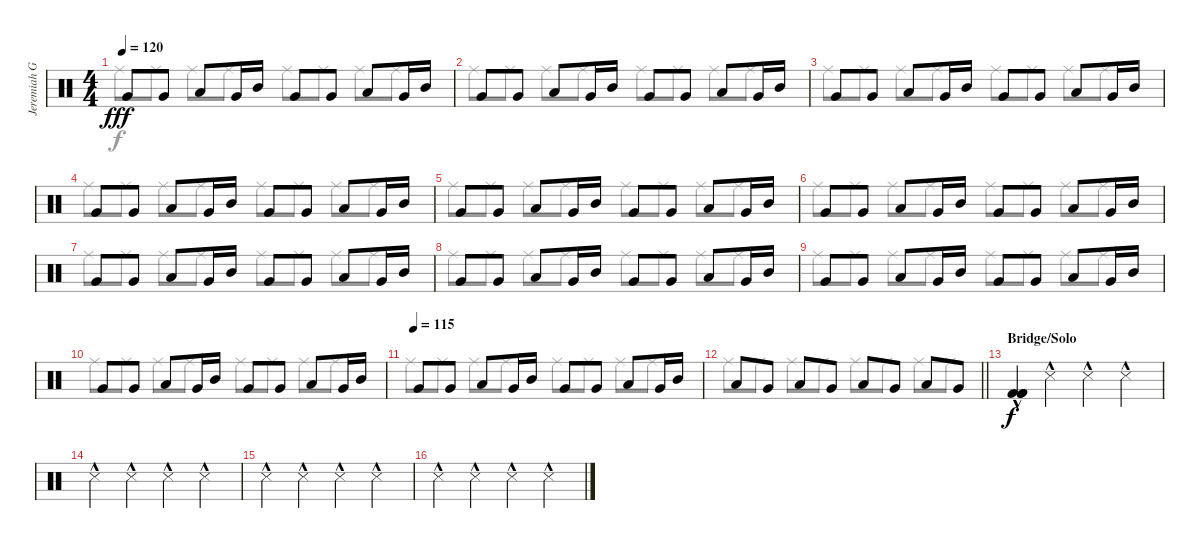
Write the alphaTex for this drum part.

\track ("Jeremiah Green" "Jeremiah G") {instrument percussion}
\staff {score}
\articulation defaults
\voice
\ts (4 4)
\tempo 120
\clef neutral
\ks c "Very Low Tom (hit)".8{dy fff} "Very Low Tom (hit)".8 "Low Tom (hit)".8 "Very Low Tom (hit)".16 "Mid Tom (hit)".16 "Very Low Tom (hit)".8 "Very Low Tom (hit)".8 "Low Tom (hit)".8 "Very Low Tom (hit)".16 "Mid Tom (hit)".16
|
"Very Low Tom (hit)".8 "Very Low Tom (hit)".8 "Low Tom (hit)".8 "Very Low Tom (hit)".16 "Mid Tom (hit)".16 "Very Low Tom (hit)".8 "Very Low Tom (hit)".8 "Low Tom (hit)".8 "Very Low Tom (hit)".16 "Mid Tom (hit)".16 |
"Very Low Tom (hit)".8 "Very Low Tom (hit)".8 "Low Tom (hit)".8 "Very Low Tom (hit)".16 "Mid Tom (hit)".16 "Very Low Tom (hit)".8 "Very Low Tom (hit)".8 "Low Tom (hit)".8 "Very Low Tom (hit)".16 "Mid Tom (hit)".16 |
"Very Low Tom (hit)".8 "Very Low Tom (hit)".8 "Low Tom (hit)".8 "Very Low Tom (hit)".16 "Mid Tom (hit)".16 "Very Low Tom (hit)".8 "Very Low Tom (hit)".8 "Low Tom (hit)".8 "Very Low Tom (hit)".16 "Mid Tom (hit)".16 |
"Very Low Tom (hit)".8 "Very Low Tom (hit)".8 "Low Tom (hit)".8 "Very Low Tom (hit)".16 "Mid Tom (hit)".16 "Very Low Tom (hit)".8 "Very Low Tom (hit)".8 "Low Tom (hit)".8 "Very Low Tom (hit)".16 "Mid Tom (hit)".16 |
"Very Low Tom (hit)".8 "Very Low Tom (hit)".8 "Low Tom (hit)".8 "Very Low Tom (hit)".16 "Mid Tom (hit)".16 "Very Low Tom (hit)".8 "Very Low Tom (hit)".8 "Low Tom (hit)".8 "Very Low Tom (hit)".16 "Mid Tom (hit)".16 |
"Very Low Tom (hit)".8 "Very Low Tom (hit)".8 "Low Tom (hit)".8 "Very Low Tom (hit)".16 "Mid Tom (hit)".16 "Very Low Tom (hit)".8 "Very Low Tom (hit)".8 "Low Tom (hit)".8 "Very Low Tom (hit)".16 "Mid Tom (hit)".16 |
"Very Low Tom (hit)".8 "Very Low Tom (hit)".8 "Low Tom (hit)".8 "Very Low Tom (hit)".16 "Mid Tom (hit)".16 "Very Low Tom (hit)".8 "Very Low Tom (hit)".8 "Low Tom (hit)".8 "Very Low Tom (hit)".16 "Mid Tom (hit)".16 |
"Very Low Tom (hit)".8 "Very Low Tom (hit)".8 "Low Tom (hit)".8 "Very Low Tom (hit)".16 "Mid Tom (hit)".16 "Very Low Tom (hit)".8 "Very Low Tom (hit)".8 "Low Tom (hit)".8 "Very Low Tom (hit)".16 "Mid Tom (hit)".16 |
"Very Low Tom (hit)".8 "Very Low Tom (hit)".8 "Low Tom (hit)".8 "Very Low Tom (hit)".16 "Mid Tom (hit)".16 "Very Low Tom (hit)".8 "Very Low Tom (hit)".8 "Low Tom (hit)".8 "Very Low Tom (hit)".16 "Mid Tom (hit)".16 |
\tempo (115)
"Very Low Tom (hit)".8 "Very Low Tom (hit)".8 "Low Tom (hit)".8 "Very Low Tom (hit)".16 "Mid Tom (hit)".16 "Very Low Tom (hit)".8 "Very Low Tom (hit)".8 "Low Tom (hit)".8 "Very Low Tom (hit)".16 "Mid Tom (hit)".16 |
\barLineRight lightlight "Low Tom (hit)".8 "Very Low Tom (hit)".8 "Low Tom (hit)".8 "Very Low Tom (hit)".8 "Low Tom (hit)".8 "Very Low Tom (hit)".8 "Low Tom (hit)".8 "Very Low Tom (hit)".8
|
\section ("" "Bridge/Solo")
("Kick (hit) 2"{hac} "Kick (hit) 2"{hac} "Kick (hit) 2"{hac}).4{dy f} "Snare (side stick) 3"{hac}.4 "Snare (side stick) 3"{hac}.4 "Snare (side stick) 3"{hac}.4 |
"Snare (side stick) 3"{hac}.4 "Snare (side stick) 3"{hac}.4 "Snare (side stick) 3"{hac}.4 "Snare (side stick) 3"{hac}.4 |
"Snare (side stick) 3"{hac}.4 "Snare (side stick) 3"{hac}.4 "Snare (side stick) 3"{hac}.4 "Snare (side stick) 3"{hac}.4 |
"Snare (side stick) 3"{hac}.4 "Snare (side stick) 3"{hac}.4 "Snare (side stick) 3"{hac}.4 "Snare (side stick) 3"{hac}.4
\voice
\clef neutral
\ottava regular
\simile none
\ks c "Ride (middle)".8{dy f} "Ride (middle)".8 "Ride (middle)".8 "Ride (middle)".8 "Ride (middle)".8 "Ride (middle)".8 "Ride (middle)".8 "Ride (middle)".8
|
"Ride (middle)".8 "Ride (middle)".8 "Ride (middle)".8 "Ride (middle)".8 "Ride (middle)".8 "Ride (middle)".8 "Ride (middle)".8 "Ride (middle)".8 |
"Ride (middle)".8 "Ride (middle)".8 "Ride (middle)".8 "Ride (middle)".8 "Ride (middle)".8 "Ride (middle)".8 "Ride (middle)".8 "Ride (middle)".8 |
"Ride (middle)".8 "Ride (middle)".8 "Ride (middle)".8 "Ride (middle)".8 "Ride (middle)".8 "Ride (middle)".8 "Ride (middle)".8 "Ride (middle)".8 |
"Ride (middle)".8 "Ride (middle)".8 "Ride (middle)".8 "Ride (middle)".8 "Ride (middle)".8 "Ride (middle)".8 "Ride (middle)".8 "Ride (middle)".8 |
"Ride (middle)".8 "Ride (middle)".8 "Ride (middle)".8 "Ride (middle)".8 "Ride (middle)".8 "Ride (middle)".8 "Ride (middle)".8 "Ride (middle)".8 |
"Ride (middle)".8 "Ride (middle)".8 "Ride (middle)".8 "Ride (middle)".8 "Ride (middle)".8 "Ride (middle)".8 "Ride (middle)".8 "Ride (middle)".8 |
"Ride (middle)".8 "Ride (middle)".8 "Ride (middle)".8 "Ride (middle)".8 "Ride (middle)".8 "Ride (middle)".8 "Ride (middle)".8 "Ride (middle)".8 |
"Ride (middle)".8 "Ride (middle)".8 "Ride (middle)".8 "Ride (middle)".8 "Ride (middle)".8 "Ride (middle)".8 "Ride (middle)".8 "Ride (middle)".8 |
"Ride (middle)".8 "Ride (middle)".8 "Ride (middle)".8 "Ride (middle)".8 "Ride (middle)".8 "Ride (middle)".8 "Ride (middle)".8 "Ride (middle)".8 |
"Ride (middle)".8 "Ride (middle)".8 "Ride (middle)".8 "Ride (middle)".8 "Ride (middle)".8 "Ride (middle)".8 "Ride (middle)".8 "Ride (middle)".8 |
\barLineRight lightlight "Ride (middle)".8 "Ride (middle)".8 "Ride (middle)".8 "Ride (middle)".8 "Ride (middle)".8 "Ride (middle)".8 "Ride (middle)".8 "Ride (middle)".8
|
|
|
|
